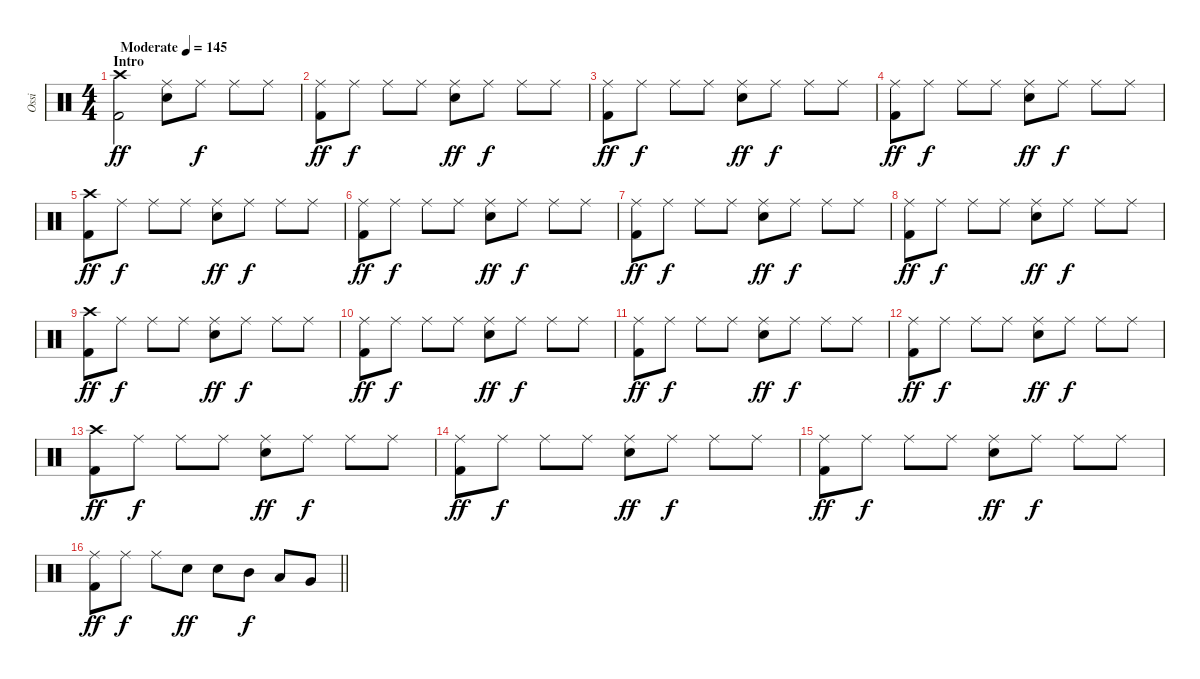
\track ("Ossi" "Ossi") {instrument percussion}
\staff {score}
\articulation defaults
\ts (4 4)
\section ("" "Intro")
\tempo (145 "Moderate")
\clef neutral
\ks c
("Crash high (hit)" "Kick (hit) 2").2{dy ff} ("Ride (middle)" "Electric Snare (hit)").8 "Ride (middle)".8{dy f} "Ride (middle)".8 "Ride (middle)".8 |
("Ride (middle)" "Kick (hit) 2").8{dy ff} "Ride (middle)".8{dy f} "Ride (middle)".8 "Ride (middle)".8 ("Ride (middle)" "Electric Snare (hit)").8{dy ff} "Ride (middle)".8{dy f} "Ride (middle)".8 "Ride (middle)".8 |
("Ride (middle)" "Kick (hit) 2").8{dy ff} "Ride (middle)".8{dy f} "Ride (middle)".8 "Ride (middle)".8 ("Ride (middle)" "Electric Snare (hit)").8{dy ff} "Ride (middle)".8{dy f} "Ride (middle)".8 "Ride (middle)".8 |
("Ride (middle)" "Kick (hit) 2").8{dy ff} "Ride (middle)".8{dy f} "Ride (middle)".8 "Ride (middle)".8 ("Ride (middle)" "Electric Snare (hit)").8{dy ff} "Ride (middle)".8{dy f} "Ride (middle)".8 "Ride (middle)".8 |
("Crash high (hit)" "Kick (hit) 2").8{dy ff} "Ride (middle)".8{dy f} "Ride (middle)".8 "Ride (middle)".8 ("Ride (middle)" "Electric Snare (hit)").8{dy ff} "Ride (middle)".8{dy f} "Ride (middle)".8 "Ride (middle)".8 |
("Ride (middle)" "Kick (hit) 2").8{dy ff} "Ride (middle)".8{dy f} "Ride (middle)".8 "Ride (middle)".8 ("Ride (middle)" "Electric Snare (hit)").8{dy ff} "Ride (middle)".8{dy f} "Ride (middle)".8 "Ride (middle)".8 |
("Ride (middle)" "Kick (hit) 2").8{dy ff} "Ride (middle)".8{dy f} "Ride (middle)".8 "Ride (middle)".8 ("Ride (middle)" "Electric Snare (hit)").8{dy ff} "Ride (middle)".8{dy f} "Ride (middle)".8 "Ride (middle)".8 |
("Ride (middle)" "Kick (hit) 2").8{dy ff} "Ride (middle)".8{dy f} "Ride (middle)".8 "Ride (middle)".8 ("Ride (middle)" "Electric Snare (hit)").8{dy ff} "Ride (middle)".8{dy f} "Ride (middle)".8 "Ride (middle)".8 |
("Crash high (hit)" "Kick (hit) 2").8{dy ff} "Ride (middle)".8{dy f} "Ride (middle)".8 "Ride (middle)".8 ("Ride (middle)" "Electric Snare (hit)").8{dy ff} "Ride (middle)".8{dy f} "Ride (middle)".8 "Ride (middle)".8 |
("Ride (middle)" "Kick (hit) 2").8{dy ff} "Ride (middle)".8{dy f} "Ride (middle)".8 "Ride (middle)".8 ("Ride (middle)" "Electric Snare (hit)").8{dy ff} "Ride (middle)".8{dy f} "Ride (middle)".8 "Ride (middle)".8 |
("Ride (middle)" "Kick (hit) 2").8{dy ff} "Ride (middle)".8{dy f} "Ride (middle)".8 "Ride (middle)".8 ("Ride (middle)" "Electric Snare (hit)").8{dy ff} "Ride (middle)".8{dy f} "Ride (middle)".8 "Ride (middle)".8 |
("Ride (middle)" "Kick (hit) 2").8{dy ff} "Ride (middle)".8{dy f} "Ride (middle)".8 "Ride (middle)".8 ("Ride (middle)" "Electric Snare (hit)").8{dy ff} "Ride (middle)".8{dy f} "Ride (middle)".8 "Ride (middle)".8 |
("Crash high (hit)" "Kick (hit) 2").8{dy ff} "Ride (middle)".8{dy f} "Ride (middle)".8 "Ride (middle)".8 ("Ride (middle)" "Electric Snare (hit)").8{dy ff} "Ride (middle)".8{dy f} "Ride (middle)".8 "Ride (middle)".8 |
("Ride (middle)" "Kick (hit) 2").8{dy ff} "Ride (middle)".8{dy f} "Ride (middle)".8 "Ride (middle)".8 ("Ride (middle)" "Electric Snare (hit)").8{dy ff} "Ride (middle)".8{dy f} "Ride (middle)".8 "Ride (middle)".8 |
("Ride (middle)" "Kick (hit) 2").8{dy ff} "Ride (middle)".8{dy f} "Ride (middle)".8 "Ride (middle)".8 ("Ride (middle)" "Electric Snare (hit)").8{dy ff} "Ride (middle)".8{dy f} "Ride (middle)".8 "Ride (middle)".8 |
\barLineRight lightlight
("Ride (middle)" "Kick (hit) 2").8{dy ff} "Ride (middle)".8{dy f} "Ride (middle)".8 "Electric Snare (hit)".8{dy ff} "Electric Snare (hit)".8 "Mid Tom (hit)".8{dy f} "Low Tom (hit)".8 "Very Low Tom (hit)".8
